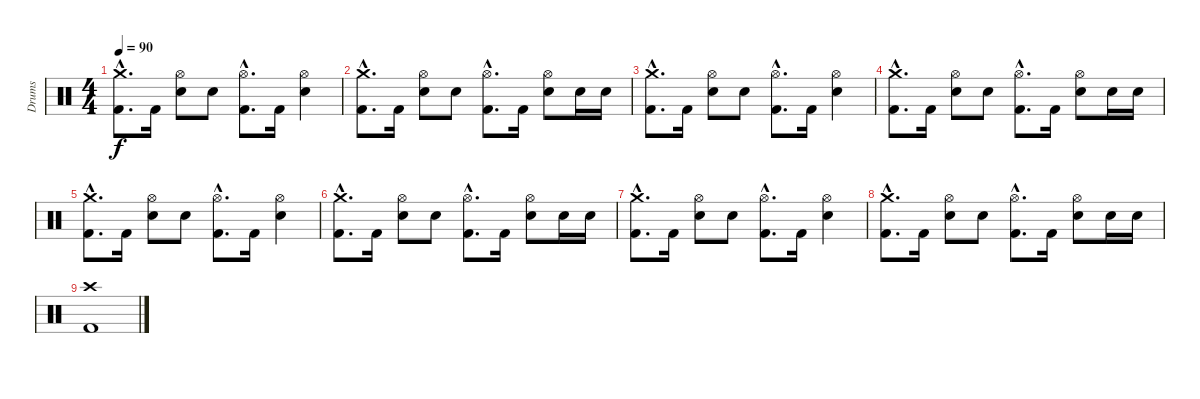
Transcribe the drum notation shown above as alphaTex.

\track ("Drums" "Drums") {instrument percussion}
\staff {score}
\articulation defaults
\ts (4 4)
\tempo 90
\clef neutral
\ks c
("Crash medium (hit)"{hac} "Kick (hit) 2"{hac}).8{d dy f} "Kick (hit) 2".16 ("Hi-Hat (open)" "Snare (hit) 2").8 "Snare (hit) 2".8 ("Hi-Hat (open)"{hac} "Kick (hit) 2"{hac}).8{d} "Kick (hit) 2".16 ("Hi-Hat (open)" "Snare (hit) 2").4 |
("Crash medium (hit)"{hac} "Kick (hit) 2"{hac}).8{d} "Kick (hit) 2".16 ("Hi-Hat (open)" "Snare (hit) 2").8 "Snare (hit) 2".8 ("Hi-Hat (open)"{hac} "Kick (hit) 2"{hac}).8{d} "Kick (hit) 2".16 ("Hi-Hat (open)" "Snare (hit) 2").8 "Snare (hit) 2".16 "Snare (hit) 2".16 |
("Crash medium (hit)"{hac} "Kick (hit) 2"{hac}).8{d} "Kick (hit) 2".16 ("Hi-Hat (open)" "Snare (hit) 2").8 "Snare (hit) 2".8 ("Hi-Hat (open)"{hac} "Kick (hit) 2"{hac}).8{d} "Kick (hit) 2".16 ("Hi-Hat (open)" "Snare (hit) 2").4 |
("Crash medium (hit)"{hac} "Kick (hit) 2"{hac}).8{d} "Kick (hit) 2".16 ("Hi-Hat (open)" "Snare (hit) 2").8 "Snare (hit) 2".8 ("Hi-Hat (open)"{hac} "Kick (hit) 2"{hac}).8{d} "Kick (hit) 2".16 ("Hi-Hat (open)" "Snare (hit) 2").8 "Snare (hit) 2".16 "Snare (hit) 2".16 |
("Crash medium (hit)"{hac} "Kick (hit) 2"{hac}).8{d} "Kick (hit) 2".16 ("Hi-Hat (open)" "Snare (hit) 2").8 "Snare (hit) 2".8 ("Hi-Hat (open)"{hac} "Kick (hit) 2"{hac}).8{d} "Kick (hit) 2".16 ("Hi-Hat (open)" "Snare (hit) 2").4 |
("Crash medium (hit)"{hac} "Kick (hit) 2"{hac}).8{d} "Kick (hit) 2".16 ("Hi-Hat (open)" "Snare (hit) 2").8 "Snare (hit) 2".8 ("Hi-Hat (open)"{hac} "Kick (hit) 2"{hac}).8{d} "Kick (hit) 2".16 ("Hi-Hat (open)" "Snare (hit) 2").8 "Snare (hit) 2".16 "Snare (hit) 2".16 |
("Crash medium (hit)"{hac} "Kick (hit) 2"{hac}).8{d} "Kick (hit) 2".16 ("Hi-Hat (open)" "Snare (hit) 2").8 "Snare (hit) 2".8 ("Hi-Hat (open)"{hac} "Kick (hit) 2"{hac}).8{d} "Kick (hit) 2".16 ("Hi-Hat (open)" "Snare (hit) 2").4 |
("Crash medium (hit)"{hac} "Kick (hit) 2"{hac}).8{d} "Kick (hit) 2".16 ("Hi-Hat (open)" "Snare (hit) 2").8 "Snare (hit) 2".8 ("Hi-Hat (open)"{hac} "Kick (hit) 2"{hac}).8{d} "Kick (hit) 2".16 ("Hi-Hat (open)" "Snare (hit) 2").8 "Snare (hit) 2".16 "Snare (hit) 2".16 |
("Crash high (hit)" "Kick (hit) 2").1
